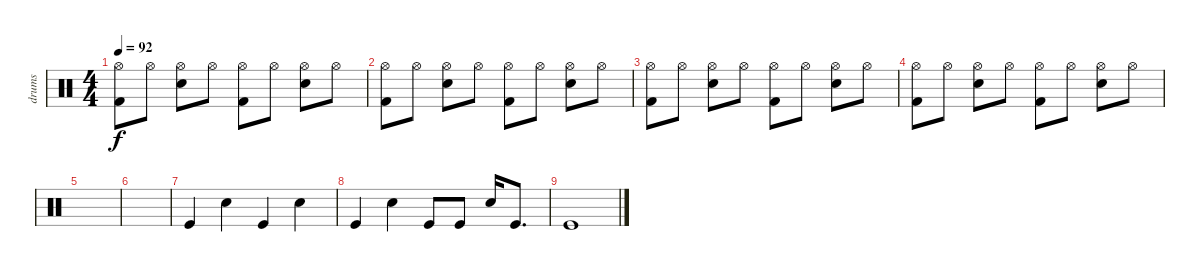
\track ("drums" "drums") {instrument percussion}
\staff {score}
\articulation defaults
\ts (4 4)
\tempo 92
\clef neutral
\ks c
("Kick (hit) 2" "Hi-Hat (open)").8{dy f} "Hi-Hat (open)".8 ("Hi-Hat (open)" "Snare (hit) 2").8 "Hi-Hat (open)".8 ("Kick (hit) 2" "Hi-Hat (open)").8 "Hi-Hat (open)".8 ("Hi-Hat (open)" "Snare (hit) 2").8 "Hi-Hat (open)".8 |
("Kick (hit) 2" "Hi-Hat (open)").8 "Hi-Hat (open)".8 ("Hi-Hat (open)" "Snare (hit) 2").8 "Hi-Hat (open)".8 ("Kick (hit) 2" "Hi-Hat (open)").8 "Hi-Hat (open)".8 ("Hi-Hat (open)" "Snare (hit) 2").8 "Hi-Hat (open)".8 |
("Kick (hit) 2" "Hi-Hat (open)").8 "Hi-Hat (open)".8 ("Hi-Hat (open)" "Snare (hit) 2").8 "Hi-Hat (open)".8 ("Kick (hit) 2" "Hi-Hat (open)").8 "Hi-Hat (open)".8 ("Hi-Hat (open)" "Snare (hit) 2").8 "Hi-Hat (open)".8 |
("Kick (hit) 2" "Hi-Hat (open)").8 "Hi-Hat (open)".8 ("Hi-Hat (open)" "Snare (hit) 2").8 "Hi-Hat (open)".8 ("Kick (hit) 2" "Hi-Hat (open)").8 "Hi-Hat (open)".8 ("Hi-Hat (open)" "Snare (hit) 2").8 "Hi-Hat (open)".8 |
|
|
"Kick (hit)".4 "Snare (hit) 2".4 "Kick (hit)".4 "Snare (hit) 2".4 |
"Kick (hit)".4 "Snare (hit) 2".4 "Kick (hit)".8 "Kick (hit)".8 "Snare (hit) 2".16 "Kick (hit)".8{d} |
"Kick (hit)".1
